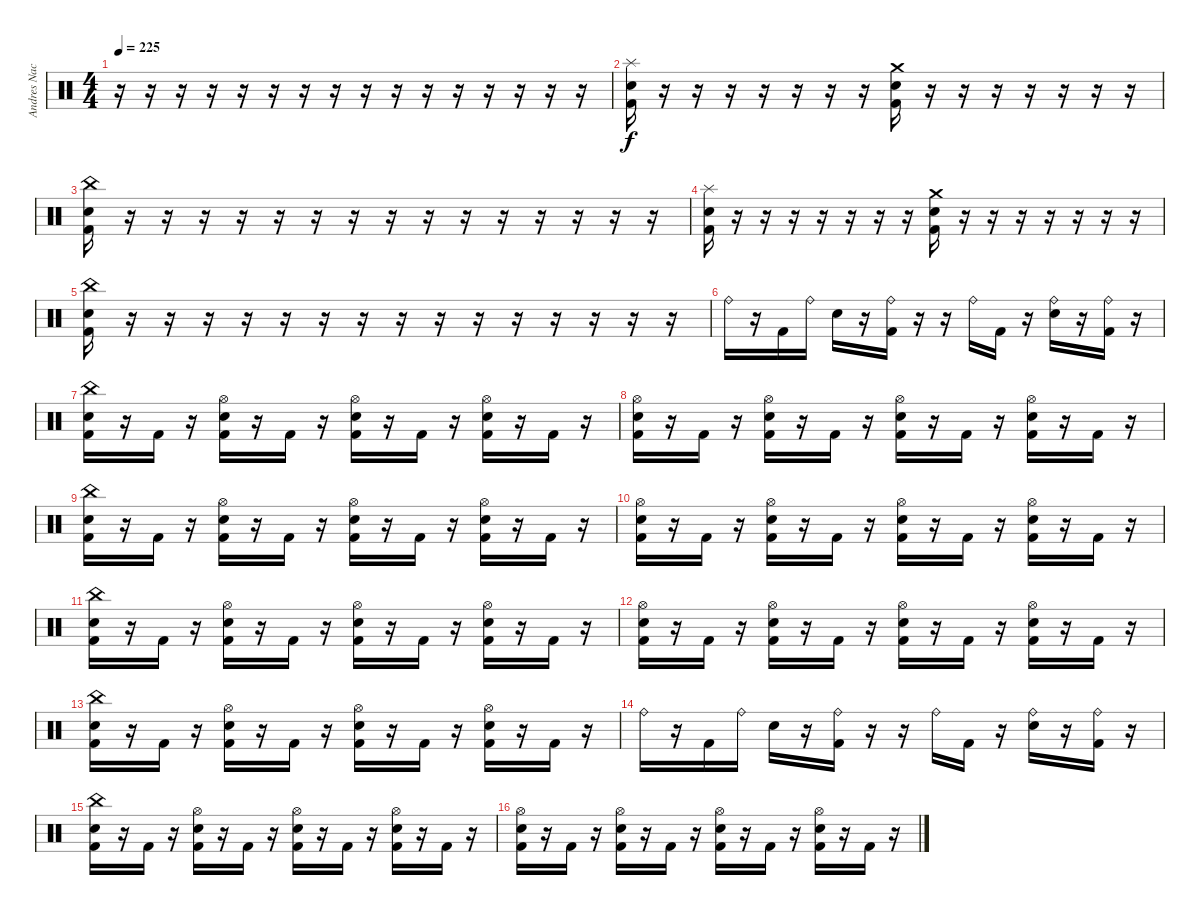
\track ("Andres Nacrur" "Andres Nac") {instrument percussion}
\staff {score}
\articulation defaults
\ts (4 4)
\tempo 225
\clef neutral
\ks c
r.16{dy f} r.16 r.16 r.16 r.16 r.16 r.16 r.16 r.16 r.16 r.16 r.16 r.16 r.16 r.16 r.16 |
("Splash (hit)" "Snare (hit) 2" "Kick (hit) 2").16 r.16 r.16 r.16 r.16 r.16 r.16 r.16 ("Crash medium (hit)" "Snare (hit) 2" "Kick (hit) 2").16 r.16 r.16 r.16 r.16 r.16 r.16 r.16 |
("China (hit)" "Snare (hit) 2" "Kick (hit) 2").16 r.16 r.16 r.16 r.16 r.16 r.16 r.16 r.16 r.16 r.16 r.16 r.16 r.16 r.16 r.16 |
("Splash (hit)" "Snare (hit) 2" "Kick (hit) 2").16 r.16 r.16 r.16 r.16 r.16 r.16 r.16 ("Crash medium (hit)" "Snare (hit) 2" "Kick (hit) 2").16 r.16 r.16 r.16 r.16 r.16 r.16 r.16 |
("China (hit)" "Snare (hit) 2" "Kick (hit) 2").16 r.16 r.16 r.16 r.16 r.16 r.16 r.16 r.16 r.16 r.16 r.16 r.16 r.16 r.16 r.16 |
"Ride (bell)".16 r.16 "Kick (hit) 2".16 "Ride (bell)".16 "Snare (hit) 2".16 r.16 ("Ride (bell)" "Kick (hit) 2").16 r.16 r.16 "Ride (bell)".16 "Kick (hit) 2".16 r.16 ("Ride (bell)" "Snare (hit) 2").16 r.16 ("Ride (bell)" "Kick (hit) 2").16 r.16 |
("China (hit)" "Snare (hit) 2" "Kick (hit) 2").16 r.16 "Kick (hit) 2".16 r.16 ("Hi-Hat (open)" "Snare (hit) 2" "Kick (hit) 2").16 r.16 "Kick (hit) 2".16 r.16 ("Hi-Hat (open)" "Snare (hit) 2" "Kick (hit) 2").16 r.16 "Kick (hit) 2".16 r.16 ("Hi-Hat (open)" "Snare (hit) 2" "Kick (hit) 2").16 r.16 "Kick (hit) 2".16 r.16 |
("Hi-Hat (open)" "Snare (hit) 2" "Kick (hit) 2").16 r.16 "Kick (hit) 2".16 r.16 ("Hi-Hat (open)" "Snare (hit) 2" "Kick (hit) 2").16 r.16 "Kick (hit) 2".16 r.16 ("Hi-Hat (open)" "Snare (hit) 2" "Kick (hit) 2").16 r.16 "Kick (hit) 2".16 r.16 ("Hi-Hat (open)" "Snare (hit) 2" "Kick (hit) 2").16 r.16 "Kick (hit) 2".16 r.16 |
("China (hit)" "Snare (hit) 2" "Kick (hit) 2").16 r.16 "Kick (hit) 2".16 r.16 ("Hi-Hat (open)" "Snare (hit) 2" "Kick (hit) 2").16 r.16 "Kick (hit) 2".16 r.16 ("Hi-Hat (open)" "Snare (hit) 2" "Kick (hit) 2").16 r.16 "Kick (hit) 2".16 r.16 ("Hi-Hat (open)" "Snare (hit) 2" "Kick (hit) 2").16 r.16 "Kick (hit) 2".16 r.16 |
("Hi-Hat (open)" "Snare (hit) 2" "Kick (hit) 2").16 r.16 "Kick (hit) 2".16 r.16 ("Hi-Hat (open)" "Snare (hit) 2" "Kick (hit) 2").16 r.16 "Kick (hit) 2".16 r.16 ("Hi-Hat (open)" "Snare (hit) 2" "Kick (hit) 2").16 r.16 "Kick (hit) 2".16 r.16 ("Hi-Hat (open)" "Snare (hit) 2" "Kick (hit) 2").16 r.16 "Kick (hit) 2".16 r.16 |
("China (hit)" "Snare (hit) 2" "Kick (hit) 2").16 r.16 "Kick (hit) 2".16 r.16 ("Hi-Hat (open)" "Snare (hit) 2" "Kick (hit) 2").16 r.16 "Kick (hit) 2".16 r.16 ("Hi-Hat (open)" "Snare (hit) 2" "Kick (hit) 2").16 r.16 "Kick (hit) 2".16 r.16 ("Hi-Hat (open)" "Snare (hit) 2" "Kick (hit) 2").16 r.16 "Kick (hit) 2".16 r.16 |
("Hi-Hat (open)" "Snare (hit) 2" "Kick (hit) 2").16 r.16 "Kick (hit) 2".16 r.16 ("Hi-Hat (open)" "Snare (hit) 2" "Kick (hit) 2").16 r.16 "Kick (hit) 2".16 r.16 ("Hi-Hat (open)" "Snare (hit) 2" "Kick (hit) 2").16 r.16 "Kick (hit) 2".16 r.16 ("Hi-Hat (open)" "Snare (hit) 2" "Kick (hit) 2").16 r.16 "Kick (hit) 2".16 r.16 |
("China (hit)" "Snare (hit) 2" "Kick (hit) 2").16 r.16 "Kick (hit) 2".16 r.16 ("Hi-Hat (open)" "Snare (hit) 2" "Kick (hit) 2").16 r.16 "Kick (hit) 2".16 r.16 ("Hi-Hat (open)" "Snare (hit) 2" "Kick (hit) 2").16 r.16 "Kick (hit) 2".16 r.16 ("Hi-Hat (open)" "Snare (hit) 2" "Kick (hit) 2").16 r.16 "Kick (hit) 2".16 r.16 |
"Ride (bell)".16 r.16 "Kick (hit) 2".16 "Ride (bell)".16 "Snare (hit) 2".16 r.16 ("Ride (bell)" "Kick (hit) 2").16 r.16 r.16 "Ride (bell)".16 "Kick (hit) 2".16 r.16 ("Ride (bell)" "Snare (hit) 2").16 r.16 ("Ride (bell)" "Kick (hit) 2").16 r.16 |
("China (hit)" "Snare (hit) 2" "Kick (hit) 2").16 r.16 "Kick (hit) 2".16 r.16 ("Hi-Hat (open)" "Snare (hit) 2" "Kick (hit) 2").16 r.16 "Kick (hit) 2".16 r.16 ("Hi-Hat (open)" "Snare (hit) 2" "Kick (hit) 2").16 r.16 "Kick (hit) 2".16 r.16 ("Hi-Hat (open)" "Snare (hit) 2" "Kick (hit) 2").16 r.16 "Kick (hit) 2".16 r.16 |
("Hi-Hat (open)" "Snare (hit) 2" "Kick (hit) 2").16 r.16 "Kick (hit) 2".16 r.16 ("Hi-Hat (open)" "Snare (hit) 2" "Kick (hit) 2").16 r.16 "Kick (hit) 2".16 r.16 ("Hi-Hat (open)" "Snare (hit) 2" "Kick (hit) 2").16 r.16 "Kick (hit) 2".16 r.16 ("Hi-Hat (open)" "Snare (hit) 2" "Kick (hit) 2").16 r.16 "Kick (hit) 2".16 r.16
